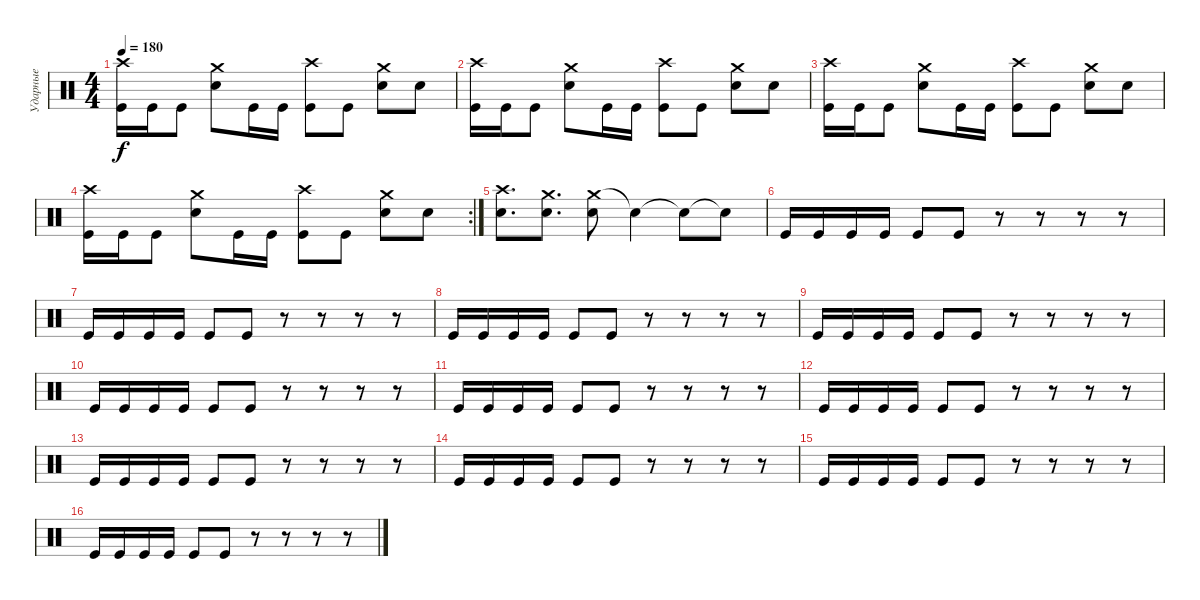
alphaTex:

\track ("Ударные" "Ударные") {instrument percussion}
\staff {score}
\articulation defaults
\ts (4 4)
\tempo 180
\clef neutral
\ks c
("Crash high (hit)" "Kick (hit)").16{dy f} "Kick (hit)".16 "Kick (hit)".8 ("Crash medium (hit)" "Snare (hit) 2").8 "Kick (hit)".16 "Kick (hit)".16 ("Crash high (hit)" "Kick (hit)").8 "Kick (hit)".8 ("Crash medium (hit)" "Snare (hit) 2").8 "Snare (hit) 2".8 |
("Crash high (hit)" "Kick (hit)").16 "Kick (hit)".16 "Kick (hit)".8 ("Crash medium (hit)" "Snare (hit) 2").8 "Kick (hit)".16 "Kick (hit)".16 ("Crash high (hit)" "Kick (hit)").8 "Kick (hit)".8 ("Crash medium (hit)" "Snare (hit) 2").8 "Snare (hit) 2".8 |
("Crash high (hit)" "Kick (hit)").16 "Kick (hit)".16 "Kick (hit)".8 ("Crash medium (hit)" "Snare (hit) 2").8 "Kick (hit)".16 "Kick (hit)".16 ("Crash high (hit)" "Kick (hit)").8 "Kick (hit)".8 ("Crash medium (hit)" "Snare (hit) 2").8 "Snare (hit) 2".8 |
\rc 2
("Crash high (hit)" "Kick (hit)").16 "Kick (hit)".16 "Kick (hit)".8 ("Crash medium (hit)" "Snare (hit) 2").8 "Kick (hit)".16 "Kick (hit)".16 ("Crash high (hit)" "Kick (hit)").8 "Kick (hit)".8 ("Crash medium (hit)" "Snare (hit) 2").8 "Snare (hit) 2".8 |
("Crash high (hit)" "Snare (hit) 2").8{d} ("Crash medium (hit)" "Snare (hit) 2").8{d} ("Crash medium (hit)" "Snare (hit) 2").8 "Snare (hit)"{t}.4 "Snare (hit)"{t}.8 "Snare (hit)"{t}.8 |
"Kick (hit)".16 "Kick (hit)".16 "Kick (hit)".16 "Kick (hit)".16 "Kick (hit)".8 "Kick (hit)".8 r.8 r.8 r.8 r.8 |
"Kick (hit)".16 "Kick (hit)".16 "Kick (hit)".16 "Kick (hit)".16 "Kick (hit)".8 "Kick (hit)".8 r.8 r.8 r.8 r.8 |
"Kick (hit)".16 "Kick (hit)".16 "Kick (hit)".16 "Kick (hit)".16 "Kick (hit)".8 "Kick (hit)".8 r.8 r.8 r.8 r.8 |
"Kick (hit)".16 "Kick (hit)".16 "Kick (hit)".16 "Kick (hit)".16 "Kick (hit)".8 "Kick (hit)".8 r.8 r.8 r.8 r.8 |
"Kick (hit)".16 "Kick (hit)".16 "Kick (hit)".16 "Kick (hit)".16 "Kick (hit)".8 "Kick (hit)".8 r.8 r.8 r.8 r.8 |
"Kick (hit)".16 "Kick (hit)".16 "Kick (hit)".16 "Kick (hit)".16 "Kick (hit)".8 "Kick (hit)".8 r.8 r.8 r.8 r.8 |
"Kick (hit)".16 "Kick (hit)".16 "Kick (hit)".16 "Kick (hit)".16 "Kick (hit)".8 "Kick (hit)".8 r.8 r.8 r.8 r.8 |
"Kick (hit)".16 "Kick (hit)".16 "Kick (hit)".16 "Kick (hit)".16 "Kick (hit)".8 "Kick (hit)".8 r.8 r.8 r.8 r.8 |
"Kick (hit)".16 "Kick (hit)".16 "Kick (hit)".16 "Kick (hit)".16 "Kick (hit)".8 "Kick (hit)".8 r.8 r.8 r.8 r.8 |
"Kick (hit)".16 "Kick (hit)".16 "Kick (hit)".16 "Kick (hit)".16 "Kick (hit)".8 "Kick (hit)".8 r.8 r.8 r.8 r.8 |
"Kick (hit)".16 "Kick (hit)".16 "Kick (hit)".16 "Kick (hit)".16 "Kick (hit)".8 "Kick (hit)".8 r.8 r.8 r.8 r.8
